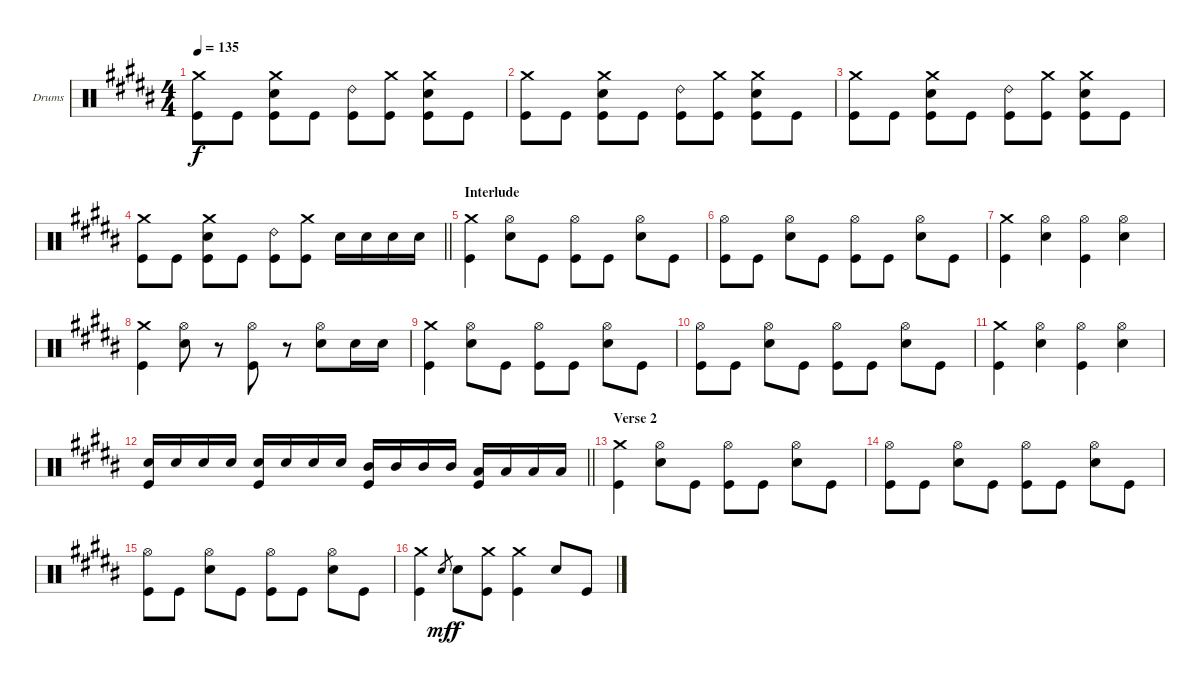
\bracketExtendMode groupsimilarinstruments
\firstSystemTrackNameOrientation horizontal
\otherSystemsTrackNameOrientation horizontal
\track ("Drumkit" "Drums") {multiBarRest instrument percussion}
\staff {score}
\articulation defaults
\ts (4 4)
\tempo 135
\clef neutral
\ks b
("Crash medium (hit)" "Kick (hit)").8{dy f} "Kick (hit)".8 ("Crash medium (hit)" "Snare (hit) 2" "Kick (hit)").8 "Kick (hit)".8 ("Ride (bell) 2" "Kick (hit)").8 ("Crash medium (hit)" "Kick (hit)").8 ("Crash medium (hit)" "Snare (hit) 2" "Kick (hit)").8 "Kick (hit)".8 |
("Crash medium (hit)" "Kick (hit)").8 "Kick (hit)".8 ("Crash medium (hit)" "Snare (hit) 2" "Kick (hit)").8 "Kick (hit)".8 ("Ride (bell) 2" "Kick (hit)").8 ("Crash medium (hit)" "Kick (hit)").8 ("Crash medium (hit)" "Snare (hit) 2" "Kick (hit)").8 "Kick (hit)".8 |
("Crash medium (hit)" "Kick (hit)").8 "Kick (hit)".8 ("Crash medium (hit)" "Snare (hit) 2" "Kick (hit)").8 "Kick (hit)".8 ("Ride (bell) 2" "Kick (hit)").8 ("Crash medium (hit)" "Kick (hit)").8 ("Crash medium (hit)" "Snare (hit) 2" "Kick (hit)").8 "Kick (hit)".8 |
\barLineRight lightlight
("Crash medium (hit)" "Kick (hit)").8 "Kick (hit)".8 ("Crash medium (hit)" "Snare (hit) 2" "Kick (hit)").8 "Kick (hit)".8 ("Ride (bell) 2" "Kick (hit)").8 ("Crash medium (hit)" "Kick (hit)").8 "Snare (hit) 2".16 "Snare (hit) 2".16 "Snare (hit) 2".16 "Snare (hit) 2".16 |
\section ("" "Interlude")
("Crash medium (hit)" "Kick (hit)").4 ("Snare (hit) 2" "Hi-Hat (open)").8 "Kick (hit)".8 ("Hi-Hat (open)" "Kick (hit)").8 "Kick (hit)".8 ("Hi-Hat (open)" "Snare (hit) 2").8 "Kick (hit)".8 |
("Hi-Hat (open)" "Kick (hit)").8 "Kick (hit)".8 ("Snare (hit) 2" "Hi-Hat (open)").8 "Kick (hit)".8 ("Hi-Hat (open)" "Kick (hit)").8 "Kick (hit)".8 ("Hi-Hat (open)" "Snare (hit) 2").8 "Kick (hit)".8 |
("Crash medium (hit)" "Kick (hit)").4 ("Hi-Hat (open)" "Snare (hit) 2").4 ("Hi-Hat (open)" "Kick (hit)").4 ("Hi-Hat (open)" "Snare (hit) 2").4 |
("Crash medium (hit)" "Kick (hit)").4 ("Snare (hit) 2" "Hi-Hat (open)").8 r.8 ("Hi-Hat (open)" "Kick (hit)").8 r.8 ("Hi-Hat (open)" "Snare (hit) 2").8 "Snare (hit) 2".16 "Snare (hit) 2".16 |
("Crash medium (hit)" "Kick (hit)").4 ("Snare (hit) 2" "Hi-Hat (open)").8 "Kick (hit)".8 ("Hi-Hat (open)" "Kick (hit)").8 "Kick (hit)".8 ("Hi-Hat (open)" "Snare (hit) 2").8 "Kick (hit)".8 |
("Hi-Hat (open)" "Kick (hit)").8 "Kick (hit)".8 ("Snare (hit) 2" "Hi-Hat (open)").8 "Kick (hit)".8 ("Hi-Hat (open)" "Kick (hit)").8 "Kick (hit)".8 ("Hi-Hat (open)" "Snare (hit) 2").8 "Kick (hit)".8 |
("Crash medium (hit)" "Kick (hit)").4 ("Hi-Hat (open)" "Snare (hit) 2").4 ("Hi-Hat (open)" "Kick (hit)").4 ("Hi-Hat (open)" "Snare (hit) 2").4 |
\barLineRight lightlight
("Snare (hit) 2" "Kick (hit)").16 "Snare (hit) 2".16 "Snare (hit) 2".16 "Snare (hit) 2".16 ("Snare (hit) 2" "Kick (hit)").16 "Snare (hit) 2".16 "Snare (hit) 2".16 "Snare (hit) 2".16 ("Mid Tom (hit)" "Kick (hit)").16 "Mid Tom (hit)".16 "Mid Tom (hit)".16 "Mid Tom (hit)".16 ("Low Tom (hit)" "Kick (hit)").16 "Low Tom (hit)".16 "Low Tom (hit)".16 "Low Tom (hit)".16 |
\section ("" "Verse 2")
("Crash medium (hit)" "Kick (hit)").4 ("Snare (hit) 2" "Hi-Hat (open)").8 "Kick (hit)".8 ("Hi-Hat (open)" "Kick (hit)").8 "Kick (hit)".8 ("Snare (hit) 2" "Hi-Hat (open)").8 "Kick (hit)".8 |
("Hi-Hat (open)" "Kick (hit)").8 "Kick (hit)".8 ("Snare (hit) 2" "Hi-Hat (open)").8 "Kick (hit)".8 ("Hi-Hat (open)" "Kick (hit)").8 "Kick (hit)".8 ("Snare (hit) 2" "Hi-Hat (open)").8 "Kick (hit)".8 |
("Hi-Hat (open)" "Kick (hit)").8 "Kick (hit)".8 ("Snare (hit) 2" "Hi-Hat (open)").8 "Kick (hit)".8 ("Hi-Hat (open)" "Kick (hit)").8 "Kick (hit)".8 ("Snare (hit) 2" "Hi-Hat (open)").8 "Kick (hit)".8 |
("Crash medium (hit)" "Kick (hit)").4 "Snare (hit) 2".8{gr dy mf} "Snare (hit) 2".8{dy f} ("Crash medium (hit)" "Kick (hit)").8 ("Crash medium (hit)" "Kick (hit)").4 "Snare (hit) 2".8 "Kick (hit)".8
